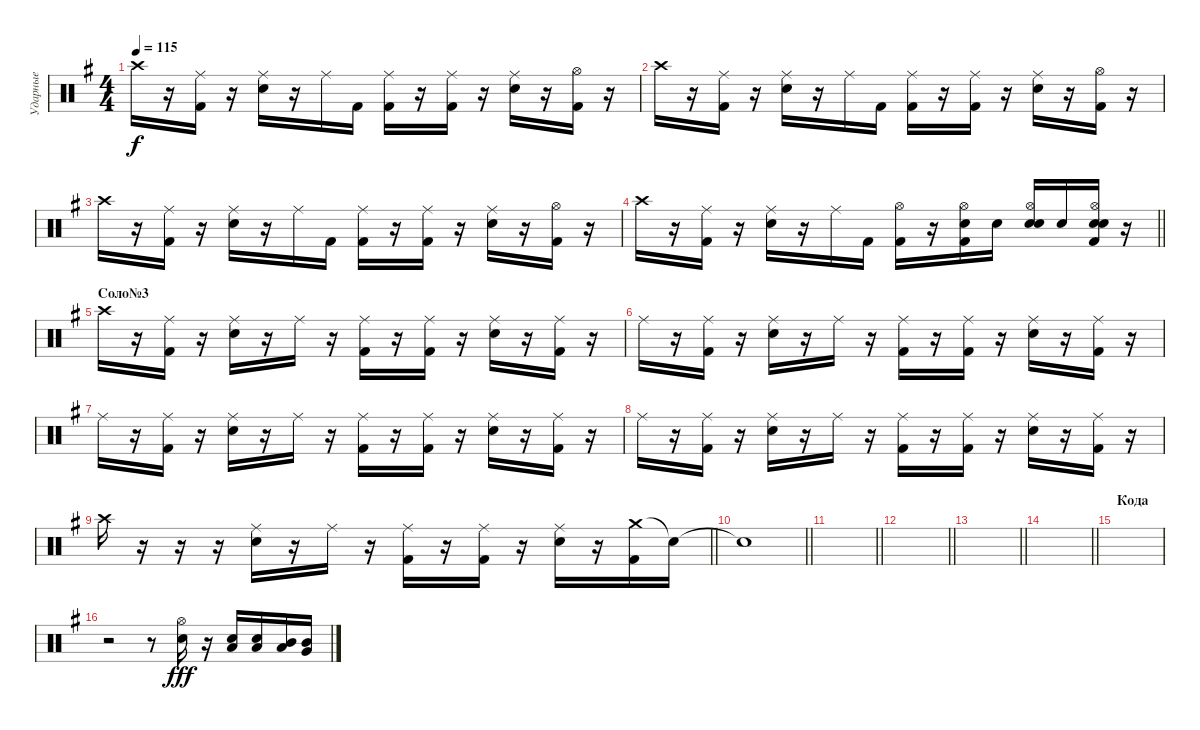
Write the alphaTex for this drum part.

\track ("Ударные" "Ударные") {instrument percussion}
\staff {score}
\articulation defaults
\ts (4 4)
\tempo 115
\clef neutral
\ks g "Crash high (hit)".16{dy f}
r.16 ("Ride (middle)" "Kick (hit) 2").16 r.16 ("Ride (middle)" "Electric Snare (hit)").16 r.16 "Ride (middle)".16 "Kick (hit) 2".16 ("Ride (middle)" "Kick (hit) 2").16 r.16 ("Ride (middle)" "Kick (hit) 2").16 r.16 ("Ride (middle)" "Electric Snare (hit)").16 r.16 ("Hi-Hat (open)" "Kick (hit) 2").16 r.16 |
"Crash high (hit)".16 r.16 ("Ride (middle)" "Kick (hit) 2").16 r.16 ("Ride (middle)" "Electric Snare (hit)").16 r.16 "Ride (middle)".16 "Kick (hit) 2".16 ("Ride (middle)" "Kick (hit) 2").16 r.16 ("Ride (middle)" "Kick (hit) 2").16 r.16 ("Ride (middle)" "Electric Snare (hit)").16 r.16 ("Hi-Hat (open)" "Kick (hit) 2").16 r.16 |
"Crash high (hit)".16 r.16 ("Ride (middle)" "Kick (hit) 2").16 r.16 ("Ride (middle)" "Electric Snare (hit)").16 r.16 "Ride (middle)".16 "Kick (hit) 2".16 ("Ride (middle)" "Kick (hit) 2").16 r.16 ("Ride (middle)" "Kick (hit) 2").16 r.16 ("Ride (middle)" "Electric Snare (hit)").16 r.16 ("Hi-Hat (open)" "Kick (hit) 2").16 r.16 |
\barLineRight lightlight "Crash high (hit)".16
r.16 ("Ride (middle)" "Kick (hit) 2").16 r.16 ("Ride (middle)" "Electric Snare (hit)").16 r.16 "Ride (middle)".16 "Kick (hit) 2".16 ("Hi-Hat (open)" "Kick (hit) 2").16 r.16 ("Hi-Hat (open)" "Electric Snare (hit)" "Kick (hit) 2").16 "Electric Snare (hit)".16 ("Hi-Hat (open)" "Electric Snare (hit)" "Snare (hit) 2").16 "Electric Snare (hit)".16 ("Hi-Hat (open)" "Electric Snare (hit)" "Snare (hit) 2" "Kick (hit) 2").16 r.16 |
\section ("" "Соло№3")
"Crash high (hit)".16 r.16 ("Ride (middle)" "Kick (hit) 2").16 r.16 ("Ride (middle)" "Electric Snare (hit)").16 r.16 "Ride (middle)".16 r.16 ("Ride (middle)" "Kick (hit) 2").16 r.16 ("Ride (middle)" "Kick (hit) 2").16 r.16 ("Ride (middle)" "Electric Snare (hit)").16 r.16 ("Ride (middle)" "Kick (hit) 2").16 r.16 |
"Ride (middle)".16 r.16 ("Ride (middle)" "Kick (hit) 2").16 r.16 ("Ride (middle)" "Electric Snare (hit)").16 r.16 "Ride (middle)".16 r.16 ("Ride (middle)" "Kick (hit) 2").16 r.16 ("Ride (middle)" "Kick (hit) 2").16 r.16 ("Ride (middle)" "Electric Snare (hit)").16 r.16 ("Ride (middle)" "Kick (hit) 2").16 r.16 |
"Ride (middle)".16 r.16 ("Ride (middle)" "Kick (hit) 2").16 r.16 ("Ride (middle)" "Electric Snare (hit)").16 r.16 "Ride (middle)".16 r.16 ("Ride (middle)" "Kick (hit) 2").16 r.16 ("Ride (middle)" "Kick (hit) 2").16 r.16 ("Ride (middle)" "Electric Snare (hit)").16 r.16 ("Ride (middle)" "Kick (hit) 2").16 r.16 |
"Ride (middle)".16 r.16 ("Ride (middle)" "Kick (hit) 2").16 r.16 ("Ride (middle)" "Electric Snare (hit)").16 r.16 "Ride (middle)".16 r.16 ("Ride (middle)" "Kick (hit) 2").16 r.16 ("Ride (middle)" "Kick (hit) 2").16 r.16 ("Ride (middle)" "Electric Snare (hit)").16 r.16 ("Ride (middle)" "Kick (hit) 2").16 r.16 |
\barLineRight lightlight "Crash high (hit)".16
r.16 r.16 r.16 ("Ride (middle)" "Electric Snare (hit)").16 r.16 "Ride (middle)".16 r.16 ("Ride (middle)" "Kick (hit) 2").16 r.16 ("Ride (middle)" "Kick (hit) 2").16 r.16 ("Ride (middle)" "Electric Snare (hit)").16 r.16 ("Crash medium (hit)" "Kick (hit) 2").16 "Snare (hit)"{t}.16 |
\barLineRight lightlight "Snare (hit)"{t}.1
|
\barLineRight lightlight
|
\barLineRight lightlight
|
\barLineRight lightlight
|
\barLineRight lightlight
|
\section ("" "Кода")
|
r.2 r.8 ("Hi-Hat (open)" "Electric Snare (hit)").16{dy fff} r.16 ("Low Tom (hit)" "Electric Snare (hit)").16 ("Low Tom (hit)" "Electric Snare (hit)").16 ("Mid Tom (hit)" "Low Floor Tom (hit)").16 ("Mid Tom (hit)" "Very Low Tom (hit)").16
